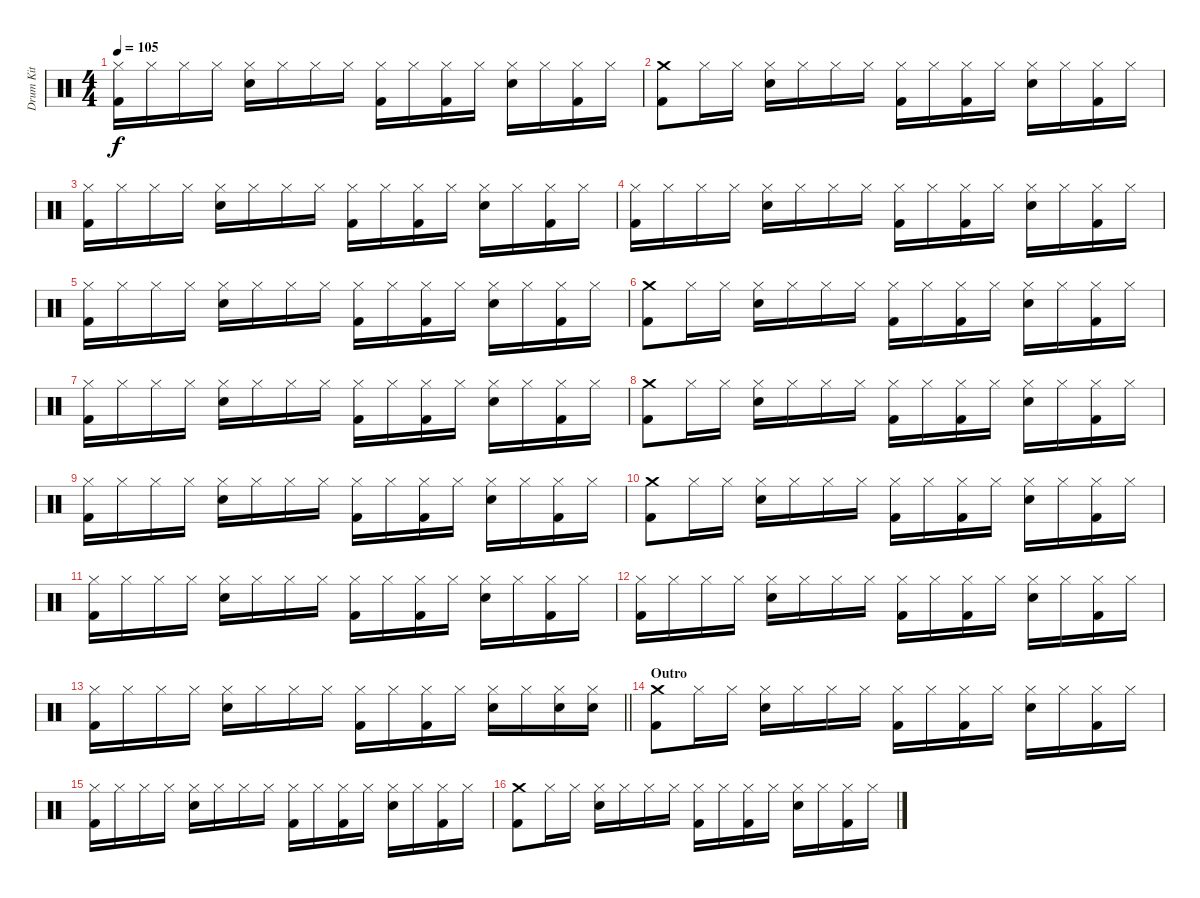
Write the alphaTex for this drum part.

\track ("Drum Kit" "Drum Kit") {instrument percussion}
\staff {score}
\articulation defaults
\ts (4 4)
\tempo 105
\clef neutral
\ks c
("Hi-Hat (closed)" "Kick (hit) 2").16{dy f} "Hi-Hat (closed)".16 "Hi-Hat (closed)".16 "Hi-Hat (closed)".16 ("Hi-Hat (closed)" "Electric Snare (hit)").16 "Hi-Hat (closed)".16 "Hi-Hat (closed)".16 "Hi-Hat (closed)".16 ("Hi-Hat (closed)" "Kick (hit) 2").16 "Hi-Hat (closed)".16 ("Hi-Hat (closed)" "Kick (hit) 2").16 "Hi-Hat (closed)".16 ("Hi-Hat (closed)" "Electric Snare (hit)").16 "Hi-Hat (closed)".16 ("Hi-Hat (closed)" "Kick (hit) 2").16 "Hi-Hat (closed)".16 |
("Crash medium (hit)" "Kick (hit) 2").8 "Hi-Hat (closed)".16 "Hi-Hat (closed)".16 ("Hi-Hat (closed)" "Electric Snare (hit)").16 "Hi-Hat (closed)".16 "Hi-Hat (closed)".16 "Hi-Hat (closed)".16 ("Hi-Hat (closed)" "Kick (hit) 2").16 "Hi-Hat (closed)".16 ("Hi-Hat (closed)" "Kick (hit) 2").16 "Hi-Hat (closed)".16 ("Hi-Hat (closed)" "Electric Snare (hit)").16 "Hi-Hat (closed)".16 ("Hi-Hat (closed)" "Kick (hit) 2").16 "Hi-Hat (closed)".16 |
("Hi-Hat (closed)" "Kick (hit) 2").16 "Hi-Hat (closed)".16 "Hi-Hat (closed)".16 "Hi-Hat (closed)".16 ("Hi-Hat (closed)" "Electric Snare (hit)").16 "Hi-Hat (closed)".16 "Hi-Hat (closed)".16 "Hi-Hat (closed)".16 ("Hi-Hat (closed)" "Kick (hit) 2").16 "Hi-Hat (closed)".16 ("Hi-Hat (closed)" "Kick (hit) 2").16 "Hi-Hat (closed)".16 ("Hi-Hat (closed)" "Electric Snare (hit)").16 "Hi-Hat (closed)".16 ("Hi-Hat (closed)" "Kick (hit) 2").16 "Hi-Hat (closed)".16 |
("Hi-Hat (closed)" "Kick (hit) 2").16 "Hi-Hat (closed)".16 "Hi-Hat (closed)".16 "Hi-Hat (closed)".16 ("Hi-Hat (closed)" "Electric Snare (hit)").16 "Hi-Hat (closed)".16 "Hi-Hat (closed)".16 "Hi-Hat (closed)".16 ("Hi-Hat (closed)" "Kick (hit) 2").16 "Hi-Hat (closed)".16 ("Hi-Hat (closed)" "Kick (hit) 2").16 "Hi-Hat (closed)".16 ("Hi-Hat (closed)" "Electric Snare (hit)").16 "Hi-Hat (closed)".16 ("Hi-Hat (closed)" "Kick (hit) 2").16 "Hi-Hat (closed)".16 |
("Hi-Hat (closed)" "Kick (hit) 2").16 "Hi-Hat (closed)".16 "Hi-Hat (closed)".16 "Hi-Hat (closed)".16 ("Hi-Hat (closed)" "Electric Snare (hit)").16 "Hi-Hat (closed)".16 "Hi-Hat (closed)".16 "Hi-Hat (closed)".16 ("Hi-Hat (closed)" "Kick (hit) 2").16 "Hi-Hat (closed)".16 ("Hi-Hat (closed)" "Kick (hit) 2").16 "Hi-Hat (closed)".16 ("Hi-Hat (closed)" "Electric Snare (hit)").16 "Hi-Hat (closed)".16 ("Hi-Hat (closed)" "Kick (hit) 2").16 "Hi-Hat (closed)".16 |
("Crash medium (hit)" "Kick (hit) 2").8 "Hi-Hat (closed)".16 "Hi-Hat (closed)".16 ("Hi-Hat (closed)" "Electric Snare (hit)").16 "Hi-Hat (closed)".16 "Hi-Hat (closed)".16 "Hi-Hat (closed)".16 ("Hi-Hat (closed)" "Kick (hit) 2").16 "Hi-Hat (closed)".16 ("Hi-Hat (closed)" "Kick (hit) 2").16 "Hi-Hat (closed)".16 ("Hi-Hat (closed)" "Electric Snare (hit)").16 "Hi-Hat (closed)".16 ("Hi-Hat (closed)" "Kick (hit) 2").16 "Hi-Hat (closed)".16 |
("Hi-Hat (closed)" "Kick (hit) 2").16 "Hi-Hat (closed)".16 "Hi-Hat (closed)".16 "Hi-Hat (closed)".16 ("Hi-Hat (closed)" "Electric Snare (hit)").16 "Hi-Hat (closed)".16 "Hi-Hat (closed)".16 "Hi-Hat (closed)".16 ("Hi-Hat (closed)" "Kick (hit) 2").16 "Hi-Hat (closed)".16 ("Hi-Hat (closed)" "Kick (hit) 2").16 "Hi-Hat (closed)".16 ("Hi-Hat (closed)" "Electric Snare (hit)").16 "Hi-Hat (closed)".16 ("Hi-Hat (closed)" "Kick (hit) 2").16 "Hi-Hat (closed)".16 |
("Crash medium (hit)" "Kick (hit) 2").8 "Hi-Hat (closed)".16 "Hi-Hat (closed)".16 ("Hi-Hat (closed)" "Electric Snare (hit)").16 "Hi-Hat (closed)".16 "Hi-Hat (closed)".16 "Hi-Hat (closed)".16 ("Hi-Hat (closed)" "Kick (hit) 2").16 "Hi-Hat (closed)".16 ("Hi-Hat (closed)" "Kick (hit) 2").16 "Hi-Hat (closed)".16 ("Hi-Hat (closed)" "Electric Snare (hit)").16 "Hi-Hat (closed)".16 ("Hi-Hat (closed)" "Kick (hit) 2").16 "Hi-Hat (closed)".16 |
("Hi-Hat (closed)" "Kick (hit) 2").16 "Hi-Hat (closed)".16 "Hi-Hat (closed)".16 "Hi-Hat (closed)".16 ("Hi-Hat (closed)" "Electric Snare (hit)").16 "Hi-Hat (closed)".16 "Hi-Hat (closed)".16 "Hi-Hat (closed)".16 ("Hi-Hat (closed)" "Kick (hit) 2").16 "Hi-Hat (closed)".16 ("Hi-Hat (closed)" "Kick (hit) 2").16 "Hi-Hat (closed)".16 ("Hi-Hat (closed)" "Electric Snare (hit)").16 "Hi-Hat (closed)".16 ("Hi-Hat (closed)" "Kick (hit) 2").16 "Hi-Hat (closed)".16 |
("Crash medium (hit)" "Kick (hit) 2").8 "Hi-Hat (closed)".16 "Hi-Hat (closed)".16 ("Hi-Hat (closed)" "Electric Snare (hit)").16 "Hi-Hat (closed)".16 "Hi-Hat (closed)".16 "Hi-Hat (closed)".16 ("Hi-Hat (closed)" "Kick (hit) 2").16 "Hi-Hat (closed)".16 ("Hi-Hat (closed)" "Kick (hit) 2").16 "Hi-Hat (closed)".16 ("Hi-Hat (closed)" "Electric Snare (hit)").16 "Hi-Hat (closed)".16 ("Hi-Hat (closed)" "Kick (hit) 2").16 "Hi-Hat (closed)".16 |
("Hi-Hat (closed)" "Kick (hit) 2").16 "Hi-Hat (closed)".16 "Hi-Hat (closed)".16 "Hi-Hat (closed)".16 ("Hi-Hat (closed)" "Electric Snare (hit)").16 "Hi-Hat (closed)".16 "Hi-Hat (closed)".16 "Hi-Hat (closed)".16 ("Hi-Hat (closed)" "Kick (hit) 2").16 "Hi-Hat (closed)".16 ("Hi-Hat (closed)" "Kick (hit) 2").16 "Hi-Hat (closed)".16 ("Hi-Hat (closed)" "Electric Snare (hit)").16 "Hi-Hat (closed)".16 ("Hi-Hat (closed)" "Kick (hit) 2").16 "Hi-Hat (closed)".16 |
("Hi-Hat (closed)" "Kick (hit) 2").16 "Hi-Hat (closed)".16 "Hi-Hat (closed)".16 "Hi-Hat (closed)".16 ("Hi-Hat (closed)" "Electric Snare (hit)").16 "Hi-Hat (closed)".16 "Hi-Hat (closed)".16 "Hi-Hat (closed)".16 ("Hi-Hat (closed)" "Kick (hit) 2").16 "Hi-Hat (closed)".16 ("Hi-Hat (closed)" "Kick (hit) 2").16 "Hi-Hat (closed)".16 ("Hi-Hat (closed)" "Electric Snare (hit)").16 "Hi-Hat (closed)".16 ("Hi-Hat (closed)" "Kick (hit) 2").16 "Hi-Hat (closed)".16 |
\barLineRight lightlight
("Hi-Hat (closed)" "Kick (hit) 2").16 "Hi-Hat (closed)".16 "Hi-Hat (closed)".16 "Hi-Hat (closed)".16 ("Hi-Hat (closed)" "Electric Snare (hit)").16 "Hi-Hat (closed)".16 "Hi-Hat (closed)".16 "Hi-Hat (closed)".16 ("Hi-Hat (closed)" "Kick (hit) 2").16 "Hi-Hat (closed)".16 ("Hi-Hat (closed)" "Kick (hit) 2").16 "Hi-Hat (closed)".16 ("Hi-Hat (closed)" "Electric Snare (hit)").16 "Hi-Hat (closed)".16 ("Hi-Hat (closed)" "Electric Snare (hit)").16 ("Hi-Hat (closed)" "Electric Snare (hit)").16 |
\section ("" "Outro")
("Crash medium (hit)" "Kick (hit) 2").8 "Hi-Hat (closed)".16 "Hi-Hat (closed)".16 ("Hi-Hat (closed)" "Electric Snare (hit)").16 "Hi-Hat (closed)".16 "Hi-Hat (closed)".16 "Hi-Hat (closed)".16 ("Hi-Hat (closed)" "Kick (hit) 2").16 "Hi-Hat (closed)".16 ("Hi-Hat (closed)" "Kick (hit) 2").16 "Hi-Hat (closed)".16 ("Hi-Hat (closed)" "Electric Snare (hit)").16 "Hi-Hat (closed)".16 ("Hi-Hat (closed)" "Kick (hit) 2").16 "Hi-Hat (closed)".16 |
("Hi-Hat (closed)" "Kick (hit) 2").16 "Hi-Hat (closed)".16 "Hi-Hat (closed)".16 "Hi-Hat (closed)".16 ("Hi-Hat (closed)" "Electric Snare (hit)").16 "Hi-Hat (closed)".16 "Hi-Hat (closed)".16 "Hi-Hat (closed)".16 ("Hi-Hat (closed)" "Kick (hit) 2").16 "Hi-Hat (closed)".16 ("Hi-Hat (closed)" "Kick (hit) 2").16 "Hi-Hat (closed)".16 ("Hi-Hat (closed)" "Electric Snare (hit)").16 "Hi-Hat (closed)".16 ("Hi-Hat (closed)" "Kick (hit) 2").16 "Hi-Hat (closed)".16 |
("Crash medium (hit)" "Kick (hit) 2").8 "Hi-Hat (closed)".16 "Hi-Hat (closed)".16 ("Hi-Hat (closed)" "Electric Snare (hit)").16 "Hi-Hat (closed)".16 "Hi-Hat (closed)".16 "Hi-Hat (closed)".16 ("Hi-Hat (closed)" "Kick (hit) 2").16 "Hi-Hat (closed)".16 ("Hi-Hat (closed)" "Kick (hit) 2").16 "Hi-Hat (closed)".16 ("Hi-Hat (closed)" "Electric Snare (hit)").16 "Hi-Hat (closed)".16 ("Hi-Hat (closed)" "Kick (hit) 2").16 "Hi-Hat (closed)".16
